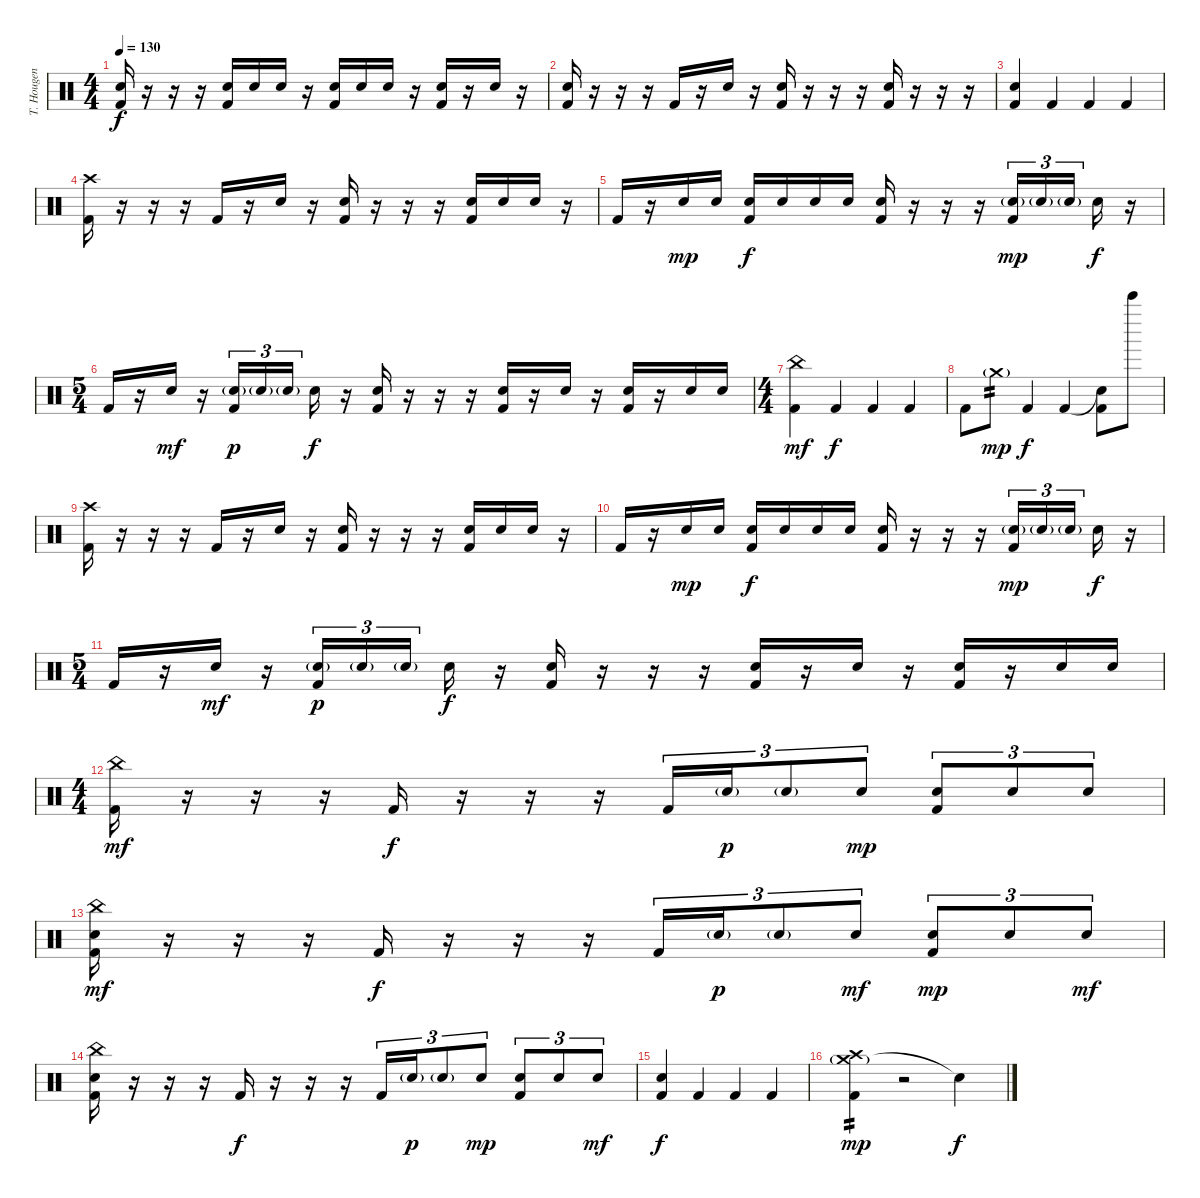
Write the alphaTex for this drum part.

\track ("T. Hougen - Drums" "T. Hougen ") {instrument percussion}
\staff {score}
\articulation defaults
\ts (4 4)
\tempo 130
\clef neutral
\ks c
("Electric Snare (hit)" "Kick (hit) 2").16{dy f} r.16 r.16 r.16 ("Electric Snare (hit)" "Kick (hit) 2").16 "Electric Snare (hit)".16 "Electric Snare (hit)".16 r.16 ("Electric Snare (hit)" "Kick (hit) 2").16 "Electric Snare (hit)".16 "Electric Snare (hit)".16 r.16 ("Electric Snare (hit)" "Kick (hit) 2").16 r.16 "Electric Snare (hit)".16 r.16 |
("Electric Snare (hit)" "Kick (hit) 2").16 r.16 r.16 r.16 "Kick (hit) 2".16 r.16 "Electric Snare (hit)".16 r.16 ("Electric Snare (hit)" "Kick (hit) 2").16 r.16 r.16 r.16 ("Electric Snare (hit)" "Kick (hit) 2").16 r.16 r.16 r.16 |
("Electric Snare (hit)" "Kick (hit) 2").4 "Kick (hit) 2".4 "Kick (hit) 2".4 "Kick (hit) 2".4 |
("Crash high (hit)" "Kick (hit) 2").16 r.16 r.16 r.16 "Kick (hit) 2".16 r.16 "Electric Snare (hit)".16 r.16 ("Electric Snare (hit)" "Kick (hit) 2").16 r.16 r.16 r.16 ("Electric Snare (hit)" "Kick (hit) 2").16 "Electric Snare (hit)".16 "Electric Snare (hit)".16 r.16 |
"Kick (hit) 2".16 r.16 "Electric Snare (hit)".16{dy mp} "Electric Snare (hit)".16 ("Electric Snare (hit)" "Kick (hit) 2").16{dy f} "Electric Snare (hit)".16 "Electric Snare (hit)".16 "Electric Snare (hit)".16 ("Electric Snare (hit)" "Kick (hit) 2").16 r.16 r.16 r.16 ("Electric Snare (hit)"{g} "Kick (hit) 2").16{tu (3 2) dy mp} "Electric Snare (hit)"{g}.16{tu (3 2)} "Electric Snare (hit)"{g}.16{tu (3 2)} "Electric Snare (hit)".16{dy f} r.16 |
\ts (5 4)
"Kick (hit) 2".16 r.16 "Electric Snare (hit)".16{dy mf} r.16 ("Electric Snare (hit)"{g} "Kick (hit) 2").16{tu (3 2) dy p} "Electric Snare (hit)"{g}.16{tu (3 2)} "Electric Snare (hit)"{g}.16{tu (3 2)} "Electric Snare (hit)".16{dy f} r.16 ("Electric Snare (hit)" "Kick (hit) 2").16 r.16 r.16 r.16 ("Electric Snare (hit)" "Kick (hit) 2").16 r.16 "Electric Snare (hit)".16 r.16 ("Electric Snare (hit)" "Kick (hit) 2").16 r.16 "Electric Snare (hit)".16 "Electric Snare (hit)".16 |
\ts (4 4)
("China (hit)" "Kick (hit) 2").4{dy mf} "Kick (hit) 2".4{dy f} "Kick (hit) 2".4 "Kick (hit) 2".4 |
"Kick (hit) 2".8 "Crash medium (hit)"{g}.8{tp 2 dy mp} "Kick (hit) 2".4{dy f} "Kick (hit) 2".4 ("Snare (hit)"{t} "Kick (hit) 2").8 "Bell Tree (hit)".8 |
("Crash high (hit)" "Kick (hit) 2").16 r.16 r.16 r.16 "Kick (hit) 2".16 r.16 "Electric Snare (hit)".16 r.16 ("Electric Snare (hit)" "Kick (hit) 2").16 r.16 r.16 r.16 ("Electric Snare (hit)" "Kick (hit) 2").16 "Electric Snare (hit)".16 "Electric Snare (hit)".16 r.16 |
"Kick (hit) 2".16 r.16 "Electric Snare (hit)".16{dy mp} "Electric Snare (hit)".16 ("Electric Snare (hit)" "Kick (hit) 2").16{dy f} "Electric Snare (hit)".16 "Electric Snare (hit)".16 "Electric Snare (hit)".16 ("Electric Snare (hit)" "Kick (hit) 2").16 r.16 r.16 r.16 ("Electric Snare (hit)"{g} "Kick (hit) 2").16{tu (3 2) dy mp} "Electric Snare (hit)"{g}.16{tu (3 2)} "Electric Snare (hit)"{g}.16{tu (3 2)} "Electric Snare (hit)".16{dy f} r.16 |
\ts (5 4)
"Kick (hit) 2".16 r.16 "Electric Snare (hit)".16{dy mf} r.16 ("Electric Snare (hit)"{g} "Kick (hit) 2").16{tu (3 2) dy p} "Electric Snare (hit)"{g}.16{tu (3 2)} "Electric Snare (hit)"{g}.16{tu (3 2)} "Electric Snare (hit)".16{dy f} r.16 ("Electric Snare (hit)" "Kick (hit) 2").16 r.16 r.16 r.16 ("Electric Snare (hit)" "Kick (hit) 2").16 r.16 "Electric Snare (hit)".16 r.16 ("Electric Snare (hit)" "Kick (hit) 2").16 r.16 "Electric Snare (hit)".16 "Electric Snare (hit)".16 |
\ts (4 4)
("China (hit)" "Kick (hit) 2").16{dy mf} r.16 r.16 r.16 "Kick (hit) 2".16{dy f} r.16 r.16 r.16 "Kick (hit) 2".16{tu (3 2)} "Electric Snare (hit)"{g}.16{tu (3 2) dy p} "Electric Snare (hit)"{g}.8{tu (3 2)} "Electric Snare (hit)".8{tu (3 2) dy mp} ("Electric Snare (hit)" "Kick (hit) 2").8{tu (3 2)} "Electric Snare (hit)".8{tu (3 2)} "Electric Snare (hit)".8{tu (3 2)} |
("China (hit)" "Electric Snare (hit)" "Kick (hit) 2").16{dy mf} r.16 r.16 r.16 "Kick (hit) 2".16{dy f} r.16 r.16 r.16 "Kick (hit) 2".16{tu (3 2)} "Electric Snare (hit)"{g}.16{tu (3 2) dy p} "Electric Snare (hit)"{g}.8{tu (3 2)} "Electric Snare (hit)".8{tu (3 2) dy mf} ("Electric Snare (hit)" "Kick (hit) 2").8{tu (3 2) dy mp} "Electric Snare (hit)".8{tu (3 2)} "Electric Snare (hit)".8{tu (3 2) dy mf} |
("China (hit)" "Electric Snare (hit)" "Kick (hit) 2").16 r.16 r.16 r.16 "Kick (hit) 2".16{dy f} r.16 r.16 r.16 "Kick (hit) 2".16{tu (3 2)} "Electric Snare (hit)"{g}.16{tu (3 2) dy p} "Electric Snare (hit)"{g}.8{tu (3 2)} "Electric Snare (hit)".8{tu (3 2) dy mp} ("Electric Snare (hit)" "Kick (hit) 2").8{tu (3 2)} "Electric Snare (hit)".8{tu (3 2)} "Electric Snare (hit)".8{tu (3 2) dy mf} |
("Electric Snare (hit)" "Kick (hit) 2").4{dy f} "Kick (hit) 2".4 "Kick (hit) 2".4 "Kick (hit) 2".4 |
("Crash medium (hit)"{g} "Crash high (hit)" "Kick (hit) 2").4{tp 2 dy mp} r.2 "Snare (hit)"{t}.4{dy f}
